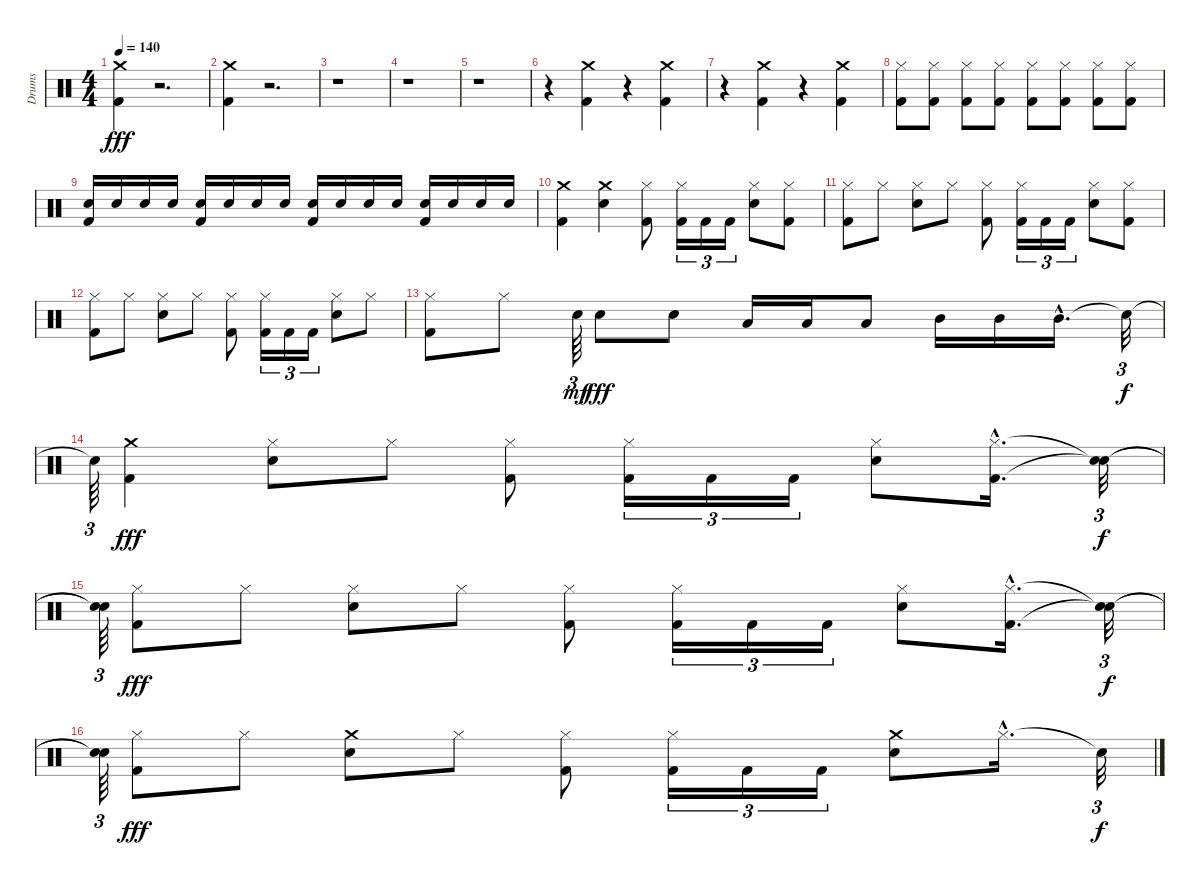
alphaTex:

\track ("Drums" "Drums") {instrument percussion}
\staff {score}
\articulation defaults
\ts (4 4)
\tempo 140
\clef neutral
\ks c
("Kick (hit) 2" "Crash medium (hit)").4{dy fff} r.2{d} |
("Kick (hit) 2" "Crash medium (hit)").4 r.2{d} |
r.1 |
r.1 |
r.1 |
r.4 ("Kick (hit) 2" "Crash medium (hit)").4 r.4 ("Kick (hit) 2" "Crash medium (hit)").4 |
r.4 ("Kick (hit) 2" "Crash medium (hit)").4 r.4 ("Crash medium (hit)" "Kick (hit) 2").4 |
("Kick (hit) 2" "Hi-Hat (closed)").8 ("Kick (hit) 2" "Hi-Hat (closed)").8 ("Kick (hit) 2" "Hi-Hat (closed)").8 ("Kick (hit) 2" "Hi-Hat (closed)").8 ("Kick (hit) 2" "Hi-Hat (closed)").8 ("Kick (hit) 2" "Hi-Hat (closed)").8 ("Kick (hit) 2" "Hi-Hat (closed)").8 ("Kick (hit) 2" "Hi-Hat (closed)").8 |
("Kick (hit) 2" "Snare (hit) 2").16 "Snare (hit) 2".16 "Snare (hit) 2".16 "Snare (hit) 2".16 ("Kick (hit) 2" "Snare (hit) 2").16 "Snare (hit) 2".16 "Snare (hit) 2".16 "Snare (hit) 2".16 ("Kick (hit) 2" "Snare (hit) 2").16 "Snare (hit) 2".16 "Snare (hit) 2".16 "Snare (hit) 2".16 ("Kick (hit) 2" "Snare (hit) 2").16 "Snare (hit) 2".16 "Snare (hit) 2".16 "Snare (hit) 2".16 |
("Kick (hit) 2" "Crash medium (hit)").4 ("Snare (hit) 2" "Crash medium (hit)").4 ("Kick (hit) 2" "Hi-Hat (closed)").8 ("Kick (hit) 2" "Hi-Hat (closed)").16{tu (3 2)} "Kick (hit) 2".16{tu (3 2)} "Kick (hit) 2".16{tu (3 2)} ("Snare (hit) 2" "Hi-Hat (closed)").8 ("Kick (hit) 2" "Hi-Hat (closed)").8 |
("Hi-Hat (closed)" "Kick (hit) 2").8 "Hi-Hat (closed)".8 ("Snare (hit) 2" "Hi-Hat (closed)").8 "Hi-Hat (closed)".8 ("Kick (hit) 2" "Hi-Hat (closed)").8 ("Kick (hit) 2" "Hi-Hat (closed)").16{tu (3 2)} "Kick (hit) 2".16{tu (3 2)} "Kick (hit) 2".16{tu (3 2)} ("Snare (hit) 2" "Hi-Hat (closed)").8 ("Kick (hit) 2" "Hi-Hat (closed)").8 |
("Hi-Hat (closed)" "Kick (hit) 2").8 "Hi-Hat (closed)".8 ("Snare (hit) 2" "Hi-Hat (closed)").8 "Hi-Hat (closed)".8 ("Kick (hit) 2" "Hi-Hat (closed)").8 ("Kick (hit) 2" "Hi-Hat (closed)").16{tu (3 2)} "Kick (hit) 2".16{tu (3 2)} "Kick (hit) 2".16{tu (3 2)} ("Snare (hit) 2" "Hi-Hat (closed)").8 "Hi-Hat (closed)".8 |
("Kick (hit) 2" "Hi-Hat (closed)").8 "Hi-Hat (closed)".8 "Snare (hit) 2".64{tu (3 2) dy mf} "Snare (hit) 2".8{dy fff} "Snare (hit) 2".8 "Low Tom (hit)".16 "Low Tom (hit)".16 "Low Tom (hit)".8 "Mid Tom (hit)".16 "Mid Tom (hit)".16 "Mid Tom (hit)"{hac}.16{d} "Snare (hit)"{t}.32{tu (3 2) dy f} |
"Snare (hit)"{t}.64{tu (3 2)} ("Kick (hit) 2" "Crash medium (hit)").4{dy fff} ("Hi-Hat (closed)" "Snare (hit) 2").8 "Hi-Hat (closed)".8 ("Kick (hit) 2" "Hi-Hat (closed)").8 ("Kick (hit) 2" "Hi-Hat (closed)").16{tu (3 2)} "Kick (hit) 2".16{tu (3 2)} "Kick (hit) 2".16{tu (3 2)} ("Snare (hit) 2" "Hi-Hat (closed)").8 ("Kick (hit) 2"{hac} "Hi-Hat (closed)"{hac}).16{d} ("Snare (hit)"{t} "Snare (hit)"{t}).32{tu (3 2) dy f} |
("Snare (hit)"{t} "Snare (hit)"{t}).64{tu (3 2)} ("Hi-Hat (closed)" "Kick (hit) 2").8{dy fff} "Hi-Hat (closed)".8 ("Snare (hit) 2" "Hi-Hat (closed)").8 "Hi-Hat (closed)".8 ("Kick (hit) 2" "Hi-Hat (closed)").8 ("Kick (hit) 2" "Hi-Hat (closed)").16{tu (3 2)} "Kick (hit) 2".16{tu (3 2)} "Kick (hit) 2".16{tu (3 2)} ("Snare (hit) 2" "Hi-Hat (closed)").8 ("Kick (hit) 2"{hac} "Hi-Hat (closed)"{hac}).16{d} ("Snare (hit)"{t} "Snare (hit)"{t}).32{tu (3 2) dy f} |
("Snare (hit)"{t} "Snare (hit)"{t}).64{tu (3 2)} ("Kick (hit) 2" "Hi-Hat (closed)").8{dy fff} "Hi-Hat (closed)".8 ("Snare (hit) 2" "Crash medium (hit)").8 "Hi-Hat (closed)".8 ("Kick (hit) 2" "Hi-Hat (closed)").8 ("Kick (hit) 2" "Hi-Hat (closed)").16{tu (3 2)} "Kick (hit) 2".16{tu (3 2)} "Kick (hit) 2".16{tu (3 2)} ("Crash medium (hit)" "Snare (hit) 2").8 "Hi-Hat (closed)"{hac}.16{d} "Snare (hit)"{t}.32{tu (3 2) dy f}
